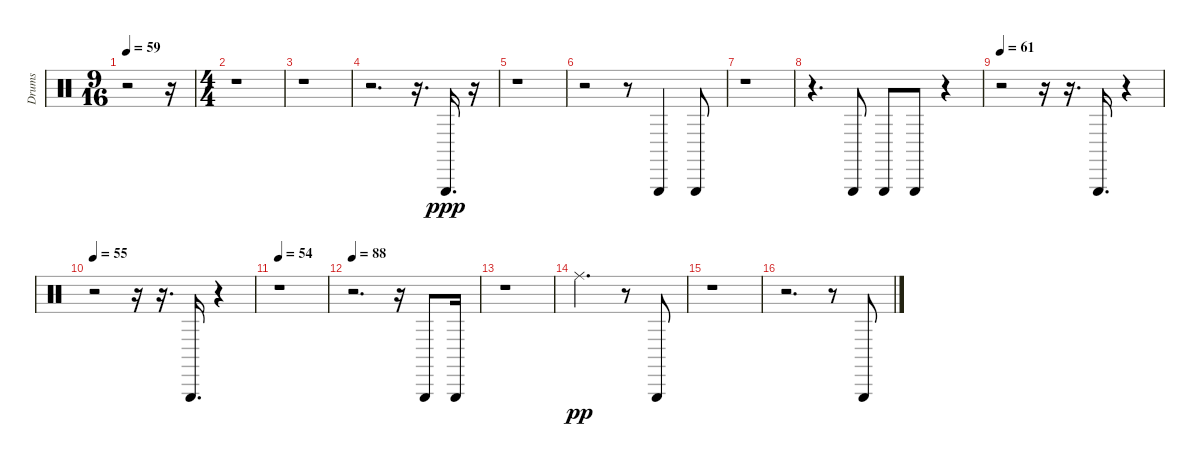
\track ("Drums" "Drums") {instrument percussion}
\staff {score}
\articulation defaults
\ts (9 16)
\tempo 59
\clef neutral
\ks c
r.2{dy ppp} r.16 |
\ts (4 4)
r.1 |
r.1 |
r.2{d} r.16{d} "Triangle (hit)".16{d} r.16 |
r.1 |
r.2 r.8 "Triangle (hit)".4 "Triangle (hit)".8 |
r.1 |
r.4{d} "Triangle (hit)".8 "Triangle (hit)".8 "Triangle (hit)".8 r.4 |
\tempo 61
r.2 r.16 r.16{d} "Triangle (hit)".16{d} r.4 |
\tempo 55
r.2 r.16 r.16{d} "Triangle (hit)".16{d} r.4 |
\tempo 54
r.1 |
\tempo 88
r.2{d} r.16 "Triangle (hit)".8 "Triangle (hit)".16 |
r.1 |
"Ride (middle)".2{d dy pp} r.8 "Triangle (hit)".8 |
r.1 |
r.2{d} r.8 "Triangle (hit)".8
